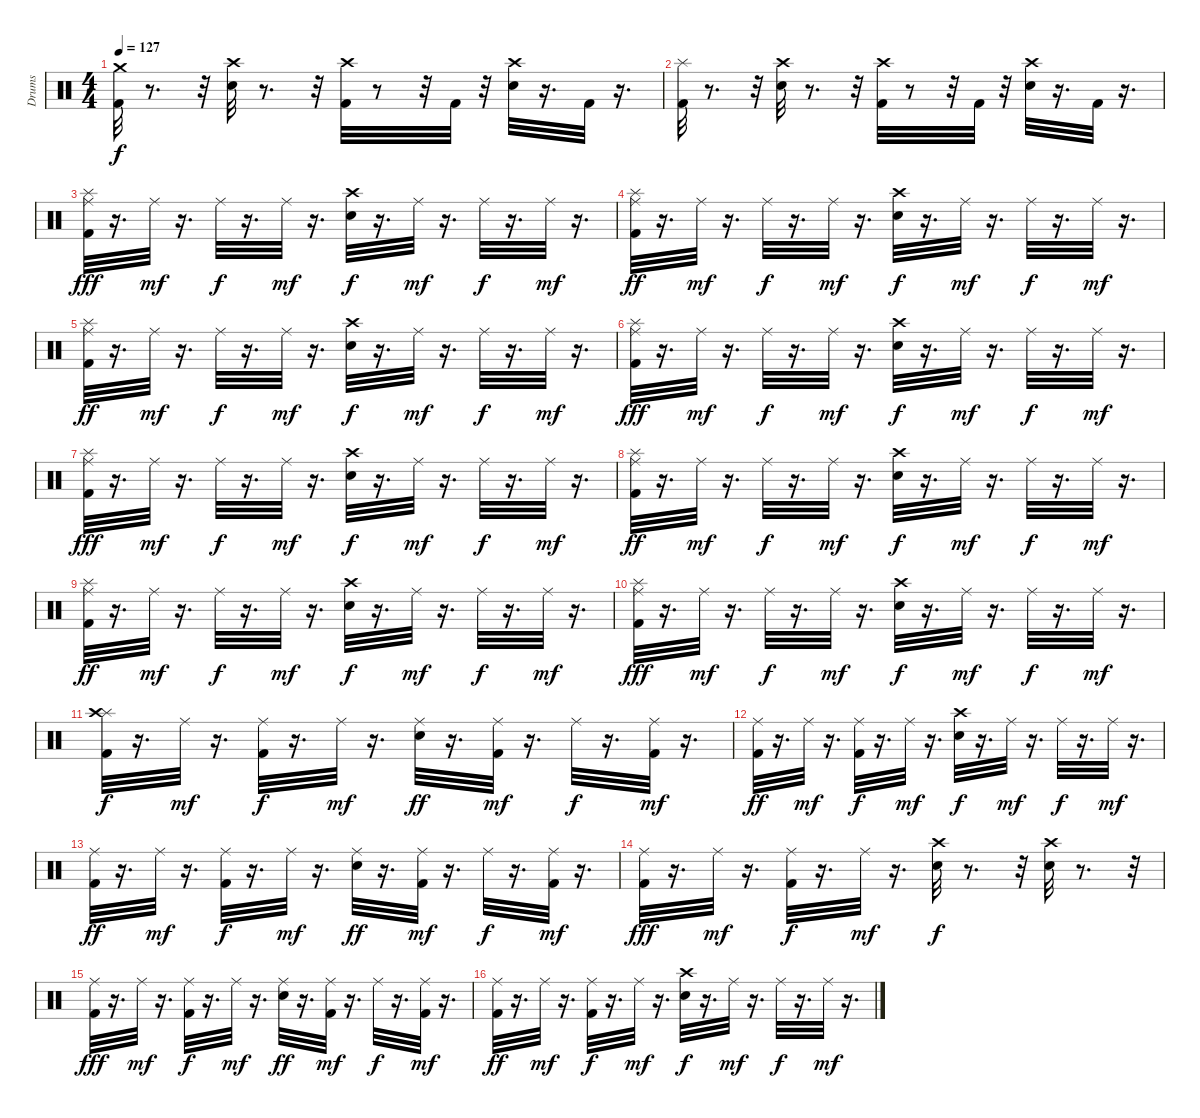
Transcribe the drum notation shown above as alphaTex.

\track ("Drums" "Drums") {instrument percussion}
\staff {score}
\articulation defaults
\ts (4 4)
\tempo 127
\clef neutral
\ks c
("Kick (hit) 2" "Crash medium (hit)").32{dy f} r.8{d} r.32 ("Snare (hit) 2" "Crash high (hit)").32 r.8{d} r.32 ("Kick (hit) 2" "Crash high (hit)").32 r.8 r.32 "Kick (hit) 2".32 r.32 ("Snare (hit) 2" "Crash high (hit)").32 r.16{d} "Kick (hit) 2".32 r.16{d} |
("Kick (hit) 2" "Splash (hit)").32 r.8{d} r.32 ("Snare (hit) 2" "Crash high (hit)").32 r.8{d} r.32 ("Kick (hit) 2" "Crash high (hit)").32 r.8 r.32 "Kick (hit) 2".32 r.32 ("Snare (hit) 2" "Crash high (hit)").32 r.16{d} "Kick (hit) 2".32 r.16{d} |
("Ride (middle)" "Splash (hit)" "Kick (hit) 2").32{dy fff} r.16{d} "Ride (middle)".32{dy mf} r.16{d} "Ride (middle)".32{dy f} r.16{d} "Ride (middle)".32{dy mf} r.16{d} ("Snare (hit) 2" "Crash high (hit)").32{dy f} r.16{d} "Ride (middle)".32{dy mf} r.16{d} "Ride (middle)".32{dy f} r.16{d} "Ride (middle)".32{dy mf} r.16{d} |
("Ride (middle)" "Splash (hit)" "Kick (hit) 2").32{dy ff} r.16{d} "Ride (middle)".32{dy mf} r.16{d} "Ride (middle)".32{dy f} r.16{d} "Ride (middle)".32{dy mf} r.16{d} ("Crash high (hit)" "Snare (hit) 2").32{dy f} r.16{d} "Ride (middle)".32{dy mf} r.16{d} "Ride (middle)".32{dy f} r.16{d} "Ride (middle)".32{dy mf} r.16{d} |
("Ride (middle)" "Splash (hit)" "Kick (hit) 2").32{dy ff} r.16{d} "Ride (middle)".32{dy mf} r.16{d} "Ride (middle)".32{dy f} r.16{d} "Ride (middle)".32{dy mf} r.16{d} ("Snare (hit) 2" "Crash high (hit)").32{dy f} r.16{d} "Ride (middle)".32{dy mf} r.16{d} "Ride (middle)".32{dy f} r.16{d} "Ride (middle)".32{dy mf} r.16{d} |
("Ride (middle)" "Splash (hit)" "Kick (hit) 2").32{dy fff} r.16{d} "Ride (middle)".32{dy mf} r.16{d} "Ride (middle)".32{dy f} r.16{d} "Ride (middle)".32{dy mf} r.16{d} ("Crash high (hit)" "Snare (hit) 2").32{dy f} r.16{d} "Ride (middle)".32{dy mf} r.16{d} "Ride (middle)".32{dy f} r.16{d} "Ride (middle)".32{dy mf} r.16{d} |
("Ride (middle)" "Splash (hit)" "Kick (hit) 2").32{dy fff} r.16{d} "Ride (middle)".32{dy mf} r.16{d} "Ride (middle)".32{dy f} r.16{d} "Ride (middle)".32{dy mf} r.16{d} ("Snare (hit) 2" "Crash high (hit)").32{dy f} r.16{d} "Ride (middle)".32{dy mf} r.16{d} "Ride (middle)".32{dy f} r.16{d} "Ride (middle)".32{dy mf} r.16{d} |
("Ride (middle)" "Splash (hit)" "Kick (hit) 2").32{dy ff} r.16{d} "Ride (middle)".32{dy mf} r.16{d} "Ride (middle)".32{dy f} r.16{d} "Ride (middle)".32{dy mf} r.16{d} ("Crash high (hit)" "Snare (hit) 2").32{dy f} r.16{d} "Ride (middle)".32{dy mf} r.16{d} "Ride (middle)".32{dy f} r.16{d} "Ride (middle)".32{dy mf} r.16{d} |
("Ride (middle)" "Splash (hit)" "Kick (hit) 2").32{dy ff} r.16{d} "Ride (middle)".32{dy mf} r.16{d} "Ride (middle)".32{dy f} r.16{d} "Ride (middle)".32{dy mf} r.16{d} ("Snare (hit) 2" "Crash high (hit)").32{dy f} r.16{d} "Ride (middle)".32{dy mf} r.16{d} "Ride (middle)".32{dy f} r.16{d} "Ride (middle)".32{dy mf} r.16{d} |
("Ride (middle)" "Splash (hit)" "Kick (hit) 2").32{dy fff} r.16{d} "Ride (middle)".32{dy mf} r.16{d} "Ride (middle)".32{dy f} r.16{d} "Ride (middle)".32{dy mf} r.16{d} ("Crash high (hit)" "Snare (hit) 2").32{dy f} r.16{d} "Ride (middle)".32{dy mf} r.16{d} "Ride (middle)".32{dy f} r.16{d} "Ride (middle)".32{dy mf} r.16{d} |
("Splash (hit)" "Crash high (hit)" "Kick (hit) 2").32{dy f} r.16{d} "Ride (middle)".32{dy mf} r.16{d} ("Ride (middle)" "Kick (hit) 2").32{dy f} r.16{d} "Ride (middle)".32{dy mf} r.16{d} ("Snare (hit) 2" "Ride (middle)").32{dy ff} r.16{d} ("Ride (middle)" "Kick (hit) 2").32{dy mf} r.16{d} "Ride (middle)".32{dy f} r.16{d} ("Ride (middle)" "Kick (hit) 2").32{dy mf} r.16{d} |
("Ride (middle)" "Kick (hit) 2").32{dy ff} r.16{d} "Ride (middle)".32{dy mf} r.16{d} ("Ride (middle)" "Kick (hit) 2").32{dy f} r.16{d} "Ride (middle)".32{dy mf} r.16{d} ("Crash high (hit)" "Snare (hit) 2").32{dy f} r.16{d} "Ride (middle)".32{dy mf} r.16{d} "Ride (middle)".32{dy f} r.16{d} "Ride (middle)".32{dy mf} r.16{d} |
("Ride (middle)" "Kick (hit) 2").32{dy ff} r.16{d} "Ride (middle)".32{dy mf} r.16{d} ("Ride (middle)" "Kick (hit) 2").32{dy f} r.16{d} "Ride (middle)".32{dy mf} r.16{d} ("Snare (hit) 2" "Ride (middle)").32{dy ff} r.16{d} ("Ride (middle)" "Kick (hit) 2").32{dy mf} r.16{d} "Ride (middle)".32{dy f} r.16{d} ("Ride (middle)" "Kick (hit) 2").32{dy mf} r.16{d} |
("Ride (middle)" "Kick (hit) 2").32{dy fff} r.16{d} "Ride (middle)".32{dy mf} r.16{d} ("Ride (middle)" "Kick (hit) 2").32{dy f} r.16{d} "Ride (middle)".32{dy mf} r.16{d} ("Crash high (hit)" "Snare (hit) 2").32{dy f} r.8{d} r.32 ("Crash high (hit)" "Snare (hit) 2").32 r.8{d} r.32 |
("Ride (middle)" "Kick (hit) 2").32{dy fff} r.16{d} "Ride (middle)".32{dy mf} r.16{d} ("Ride (middle)" "Kick (hit) 2").32{dy f} r.16{d} "Ride (middle)".32{dy mf} r.16{d} ("Snare (hit) 2" "Ride (middle)").32{dy ff} r.16{d} ("Ride (middle)" "Kick (hit) 2").32{dy mf} r.16{d} "Ride (middle)".32{dy f} r.16{d} ("Ride (middle)" "Kick (hit) 2").32{dy mf} r.16{d} |
("Ride (middle)" "Kick (hit) 2").32{dy ff} r.16{d} "Ride (middle)".32{dy mf} r.16{d} ("Ride (middle)" "Kick (hit) 2").32{dy f} r.16{d} "Ride (middle)".32{dy mf} r.16{d} ("Crash high (hit)" "Snare (hit) 2").32{dy f} r.16{d} "Ride (middle)".32{dy mf} r.16{d} "Ride (middle)".32{dy f} r.16{d} "Ride (middle)".32{dy mf} r.16{d}
